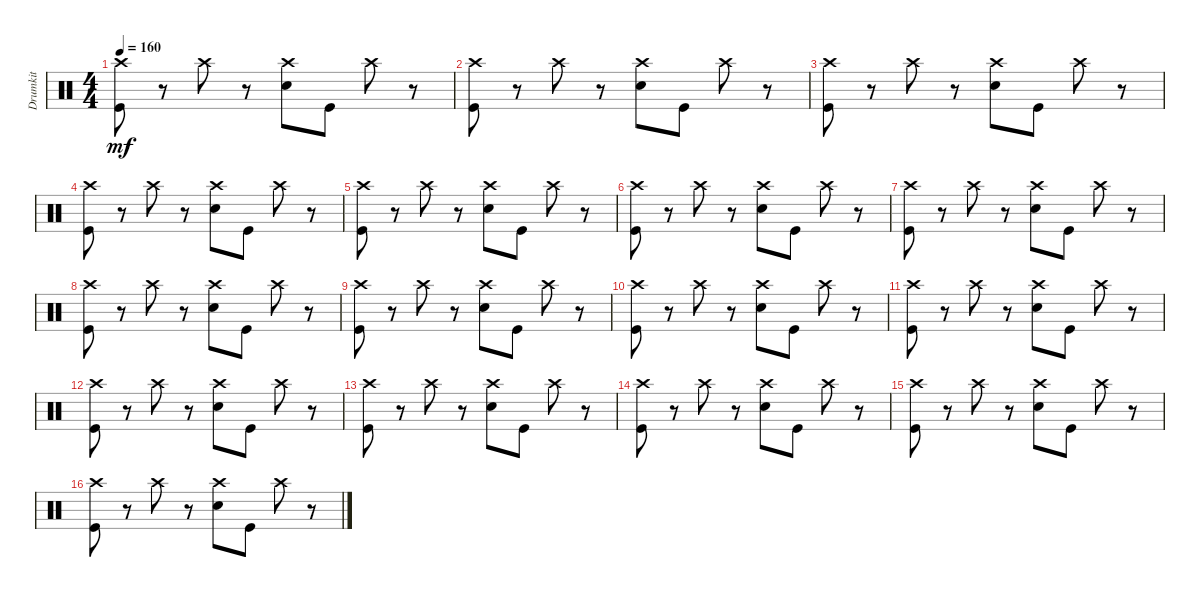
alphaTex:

\track ("Drumkit" "Drumkit") {instrument percussion}
\staff {score}
\articulation defaults
\ts (4 4)
\tempo 160
\clef neutral
\ks c
("Crash high (hit)" "Kick (hit)").8{dy mf} r.8 "Crash high (hit)".8 r.8 ("Crash high (hit)" "Snare (hit) 2").8 "Kick (hit)".8 "Crash high (hit)".8 r.8 |
("Crash high (hit)" "Kick (hit)").8 r.8 "Crash high (hit)".8 r.8 ("Crash high (hit)" "Snare (hit) 2").8 "Kick (hit)".8 "Crash high (hit)".8 r.8 |
("Crash high (hit)" "Kick (hit)").8 r.8 "Crash high (hit)".8 r.8 ("Crash high (hit)" "Snare (hit) 2").8 "Kick (hit)".8 "Crash high (hit)".8 r.8 |
("Crash high (hit)" "Kick (hit)").8 r.8 "Crash high (hit)".8 r.8 ("Crash high (hit)" "Snare (hit) 2").8 "Kick (hit)".8 "Crash high (hit)".8 r.8 |
("Crash high (hit)" "Kick (hit)").8 r.8 "Crash high (hit)".8 r.8 ("Crash high (hit)" "Snare (hit) 2").8 "Kick (hit)".8 "Crash high (hit)".8 r.8 |
("Crash high (hit)" "Kick (hit)").8 r.8 "Crash high (hit)".8 r.8 ("Crash high (hit)" "Snare (hit) 2").8 "Kick (hit)".8 "Crash high (hit)".8 r.8 |
("Crash high (hit)" "Kick (hit)").8 r.8 "Crash high (hit)".8 r.8 ("Crash high (hit)" "Snare (hit) 2").8 "Kick (hit)".8 "Crash high (hit)".8 r.8 |
("Crash high (hit)" "Kick (hit)").8 r.8 "Crash high (hit)".8 r.8 ("Crash high (hit)" "Snare (hit) 2").8 "Kick (hit)".8 "Crash high (hit)".8 r.8 |
("Crash high (hit)" "Kick (hit)").8 r.8 "Crash high (hit)".8 r.8 ("Crash high (hit)" "Snare (hit) 2").8 "Kick (hit)".8 "Crash high (hit)".8 r.8 |
("Crash high (hit)" "Kick (hit)").8 r.8 "Crash high (hit)".8 r.8 ("Crash high (hit)" "Snare (hit) 2").8 "Kick (hit)".8 "Crash high (hit)".8 r.8 |
("Crash high (hit)" "Kick (hit)").8 r.8 "Crash high (hit)".8 r.8 ("Crash high (hit)" "Snare (hit) 2").8 "Kick (hit)".8 "Crash high (hit)".8 r.8 |
("Crash high (hit)" "Kick (hit)").8 r.8 "Crash high (hit)".8 r.8 ("Crash high (hit)" "Snare (hit) 2").8 "Kick (hit)".8 "Crash high (hit)".8 r.8 |
("Crash high (hit)" "Kick (hit)").8 r.8 "Crash high (hit)".8 r.8 ("Crash high (hit)" "Snare (hit) 2").8 "Kick (hit)".8 "Crash high (hit)".8 r.8 |
("Crash high (hit)" "Kick (hit)").8 r.8 "Crash high (hit)".8 r.8 ("Crash high (hit)" "Snare (hit) 2").8 "Kick (hit)".8 "Crash high (hit)".8 r.8 |
("Crash high (hit)" "Kick (hit)").8 r.8 "Crash high (hit)".8 r.8 ("Crash high (hit)" "Snare (hit) 2").8 "Kick (hit)".8 "Crash high (hit)".8 r.8 |
("Crash high (hit)" "Kick (hit)").8 r.8 "Crash high (hit)".8 r.8 ("Crash high (hit)" "Snare (hit) 2").8 "Kick (hit)".8 "Crash high (hit)".8 r.8
